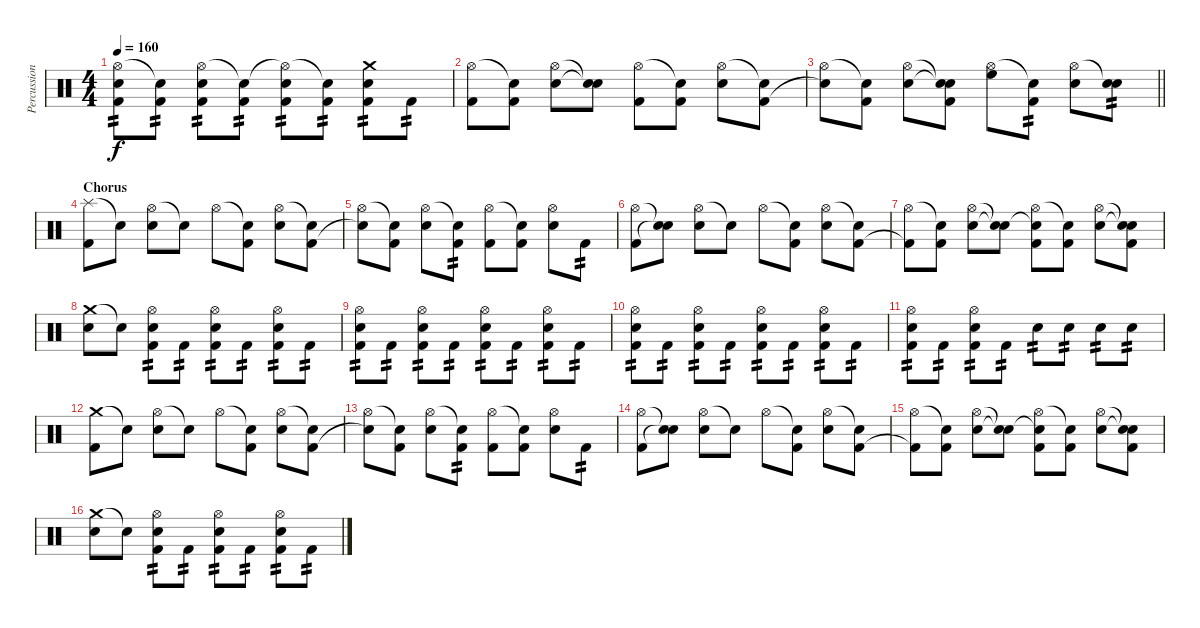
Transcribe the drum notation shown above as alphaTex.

\track ("Percussion" "Percussion") {instrument percussion}
\staff {score}
\articulation defaults
\ts (4 4)
\tempo 160
\clef neutral
\ks c
("Hi-Hat (open)" "Electric Snare (hit)" "Kick (hit) 2").8{tp 2 dy f} ("Snare (hit)"{t} "Kick (hit) 2").8{tp 2} ("Hi-Hat (open)" "Electric Snare (hit)" "Kick (hit) 2").8{tp 2} ("Snare (hit)"{t} "Kick (hit) 2").8{tp 2} ("Hi-Hat (open)"{t} "Electric Snare (hit)" "Kick (hit) 2").8{tp 2} ("Snare (hit)"{t} "Kick (hit) 2").8{tp 2} ("Crash medium (hit)" "Electric Snare (hit)" "Kick (hit) 2").8{tp 2} "Kick (hit) 2".8{tp 2} |
("Hi-Hat (open)" "Kick (hit) 2").8 ("Snare (hit)"{t} "Kick (hit) 2").8 ("Hi-Hat (open)" "Electric Snare (hit)").8 ("Snare (hit)"{t} "Snare (hit)"{t}).8 ("Hi-Hat (open)" "Kick (hit) 2").8 ("Snare (hit)"{t} "Kick (hit) 2").8 ("Hi-Hat (open)" "Electric Snare (hit)").8 ("Snare (hit)"{t} "Kick (hit) 2").8 |
\barLineRight lightlight
("Hi-Hat (open)" "Snare (hit)"{t}).8 ("Snare (hit)"{t} "Kick (hit) 2").8 ("Hi-Hat (open)" "Electric Snare (hit)").8 ("Snare (hit)"{t} "Snare (hit)"{t} "Kick (hit) 2").8 ("Hi-Hat (open)" "High Floor Tom (hit)").8 ("Snare (hit)"{t} "Kick (hit) 2").8{tp 2} ("Hi-Hat (open)" "Electric Snare (hit)").8 ("Snare (hit)"{t} "Electric Snare (hit)").8{tp 2} |
\section ("" "Chorus")
("Splash (hit)" "Kick (hit) 2").8 "Snare (hit)"{t}.8 ("Hi-Hat (open)" "Electric Snare (hit)").8 "Snare (hit)"{t}.8 "Hi-Hat (open)".8 ("Snare (hit)"{t} "Kick (hit) 2").8 ("Hi-Hat (open)" "Electric Snare (hit)").8 ("Snare (hit)"{t} "Kick (hit) 2").8 |
("Hi-Hat (open)" "Snare (hit)"{t}).8 ("Snare (hit)"{t} "Kick (hit) 2").8 ("Hi-Hat (open)" "Electric Snare (hit)").8 ("Snare (hit)"{t} "Kick (hit) 2").8{tp 2} ("Hi-Hat (open)" "Kick (hit) 2").8 ("Snare (hit)"{t} "Kick (hit) 2").8 ("Hi-Hat (open)" "Electric Snare (hit)").8 "Kick (hit) 2".8{tp 2} |
("Hi-Hat (open)" "Kick (hit) 2").8 ("Snare (hit)"{t} "Snare (hit)"{t}).8 ("Hi-Hat (open)" "Electric Snare (hit)").8 "Snare (hit)"{t}.8 "Hi-Hat (open)".8 ("Snare (hit)"{t} "Kick (hit) 2").8 ("Hi-Hat (open)" "Electric Snare (hit)").8 ("Snare (hit)"{t} "Kick (hit) 2").8 |
("Hi-Hat (open)" "Kick (hit) 2"{t}).8 ("Snare (hit)"{t} "Kick (hit) 2").8 ("Hi-Hat (open)" "Electric Snare (hit)").8 ("Snare (hit)"{t} "Snare (hit)"{t}).8 ("Hi-Hat (open)" "Snare (hit)"{t} "Kick (hit) 2").8 ("Snare (hit)"{t} "Kick (hit) 2").8 ("Hi-Hat (open)" "Electric Snare (hit)").8 ("Snare (hit)"{t} "Snare (hit)"{t} "Kick (hit) 2").8 |
("Crash medium (hit)" "Electric Snare (hit)").8 "Snare (hit)"{t}.8 ("Hi-Hat (open)" "Electric Snare (hit)" "Kick (hit) 2").8{tp 2} "Kick (hit) 2".8{tp 2} ("Hi-Hat (open)" "Electric Snare (hit)" "Kick (hit) 2").8{tp 2} "Kick (hit) 2".8{tp 2} ("Hi-Hat (open)" "Electric Snare (hit)" "Kick (hit) 2").8{tp 2} "Kick (hit) 2".8{tp 2} |
("Hi-Hat (open)" "Electric Snare (hit)" "Kick (hit) 2").8{tp 2} "Kick (hit) 2".8{tp 2} ("Hi-Hat (open)" "Electric Snare (hit)" "Kick (hit) 2").8{tp 2} "Kick (hit) 2".8{tp 2} ("Hi-Hat (open)" "Electric Snare (hit)" "Kick (hit) 2").8{tp 2} "Kick (hit) 2".8{tp 2} ("Hi-Hat (open)" "Electric Snare (hit)" "Kick (hit) 2").8{tp 2} "Kick (hit) 2".8{tp 2} |
("Hi-Hat (open)" "Electric Snare (hit)" "Kick (hit) 2").8{tp 2} "Kick (hit) 2".8{tp 2} ("Hi-Hat (open)" "Electric Snare (hit)" "Kick (hit) 2").8{tp 2} "Kick (hit) 2".8{tp 2} ("Hi-Hat (open)" "Electric Snare (hit)" "Kick (hit) 2").8{tp 2} "Kick (hit) 2".8{tp 2} ("Hi-Hat (open)" "Electric Snare (hit)" "Kick (hit) 2").8{tp 2} "Kick (hit) 2".8{tp 2} |
("Hi-Hat (open)" "Electric Snare (hit)" "Kick (hit) 2").8{tp 2} "Kick (hit) 2".8{tp 2} ("Hi-Hat (open)" "Electric Snare (hit)" "Kick (hit) 2").8{tp 2} "Kick (hit) 2".8{tp 2} "Electric Snare (hit)".8{tp 2} "Electric Snare (hit)".8{tp 2} "Electric Snare (hit)".8{tp 2} "Electric Snare (hit)".8{tp 2} |
("Crash medium (hit)" "Kick (hit) 2").8 "Snare (hit)"{t}.8 ("Hi-Hat (open)" "Electric Snare (hit)").8 "Snare (hit)"{t}.8 "Hi-Hat (open)".8 ("Snare (hit)"{t} "Kick (hit) 2").8 ("Hi-Hat (open)" "Electric Snare (hit)").8 ("Snare (hit)"{t} "Kick (hit) 2").8 |
("Hi-Hat (open)" "Snare (hit)"{t}).8 ("Snare (hit)"{t} "Kick (hit) 2").8 ("Hi-Hat (open)" "Electric Snare (hit)").8 ("Snare (hit)"{t} "Kick (hit) 2").8{tp 2} ("Hi-Hat (open)" "Kick (hit) 2").8 ("Snare (hit)"{t} "Kick (hit) 2").8 ("Hi-Hat (open)" "Electric Snare (hit)").8 "Kick (hit) 2".8{tp 2} |
("Hi-Hat (open)" "Kick (hit) 2").8 ("Snare (hit)"{t} "Snare (hit)"{t}).8 ("Hi-Hat (open)" "Electric Snare (hit)").8 "Snare (hit)"{t}.8 "Hi-Hat (open)".8 ("Snare (hit)"{t} "Kick (hit) 2").8 ("Hi-Hat (open)" "Electric Snare (hit)").8 ("Snare (hit)"{t} "Kick (hit) 2").8 |
("Hi-Hat (open)" "Kick (hit) 2"{t}).8 ("Snare (hit)"{t} "Kick (hit) 2").8 ("Hi-Hat (open)" "Electric Snare (hit)").8 ("Snare (hit)"{t} "Snare (hit)"{t}).8 ("Hi-Hat (open)" "Snare (hit)"{t} "Kick (hit) 2").8 ("Snare (hit)"{t} "Kick (hit) 2").8 ("Hi-Hat (open)" "Electric Snare (hit)").8 ("Snare (hit)"{t} "Snare (hit)"{t} "Kick (hit) 2").8 |
("Crash medium (hit)" "Electric Snare (hit)").8 "Snare (hit)"{t}.8 ("Hi-Hat (open)" "Electric Snare (hit)" "Kick (hit) 2").8{tp 2} "Kick (hit) 2".8{tp 2} ("Hi-Hat (open)" "Electric Snare (hit)" "Kick (hit) 2").8{tp 2} "Kick (hit) 2".8{tp 2} ("Hi-Hat (open)" "Electric Snare (hit)" "Kick (hit) 2").8{tp 2} "Kick (hit) 2".8{tp 2}
